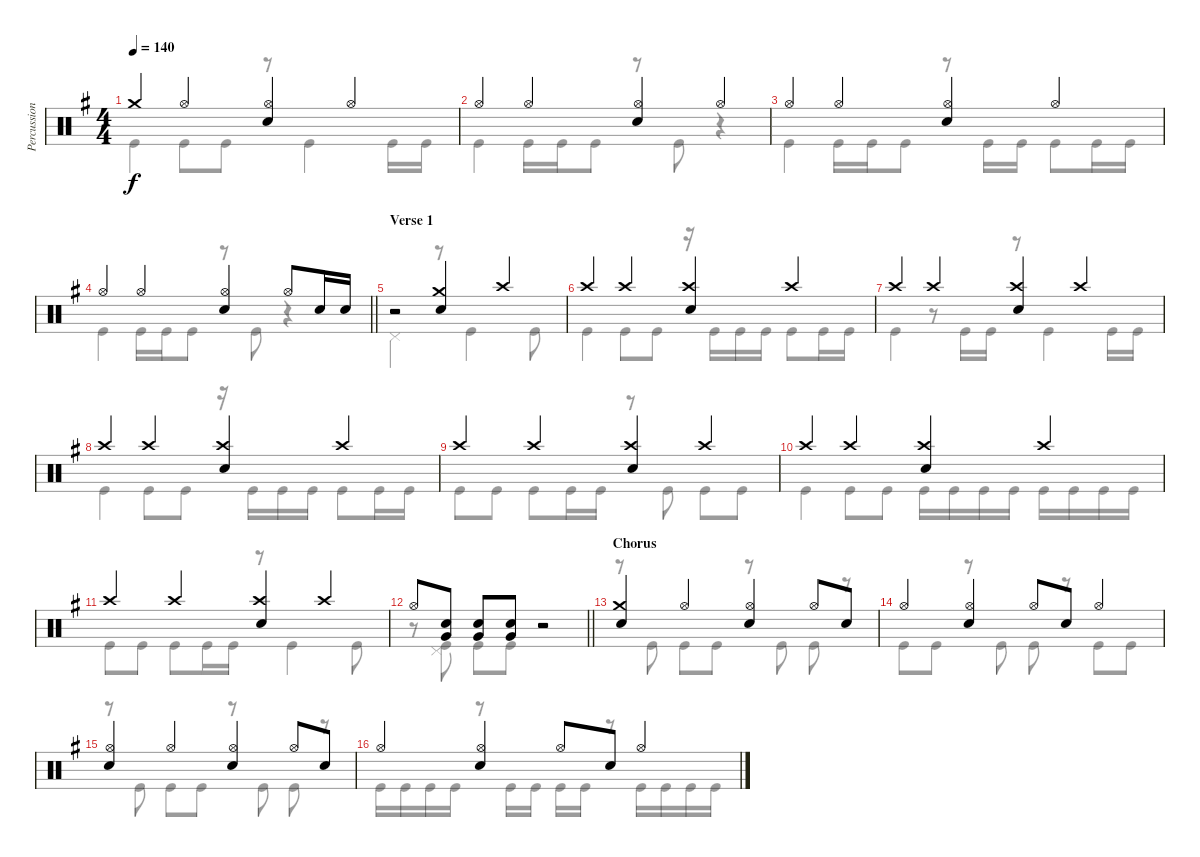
\track ("Percussion" "Percussion") {instrument percussion}
\staff {score}
\articulation defaults
\voice
\ts (4 4)
\tempo 140
\clef neutral
\ks eminor "Crash medium (hit)".4{dy f} "Hi-Hat (open)".4
("Hi-Hat (open)" "Electric Snare (hit)").4 "Hi-Hat (open)".4 |
"Hi-Hat (open)".4 "Hi-Hat (open)".4 ("Hi-Hat (open)" "Electric Snare (hit)").4 "Hi-Hat (open)".4 |
"Hi-Hat (open)".4 "Hi-Hat (open)".4 ("Hi-Hat (open)" "Electric Snare (hit)").4 "Hi-Hat (open)".4 |
\barLineRight lightlight "Hi-Hat (open)".4 "Hi-Hat (open)".4
("Hi-Hat (open)" "Electric Snare (hit)").4 "Hi-Hat (open)".8 "Electric Snare (hit)".16 "Electric Snare (hit)".16 |
\section ("" "Verse 1")
r.2 ("Crash medium (hit)" "Electric Snare (hit)").4 "Crash high (hit)".4 |
"Crash high (hit)".4 "Crash high (hit)".4 ("Crash high (hit)" "Electric Snare (hit)").4 "Crash high (hit)".4 |
"Crash high (hit)".4 "Crash high (hit)".4 ("Crash high (hit)" "Electric Snare (hit)").4 "Crash high (hit)".4 |
"Crash high (hit)".4 "Crash high (hit)".4 ("Crash high (hit)" "Electric Snare (hit)").4 "Crash high (hit)".4 |
"Crash high (hit)".4 "Crash high (hit)".4 ("Crash high (hit)" "Electric Snare (hit)").4 "Crash high (hit)".4 |
"Crash high (hit)".4 "Crash high (hit)".4 ("Crash high (hit)" "Electric Snare (hit)").4 "Crash high (hit)".4 |
"Crash high (hit)".4 "Crash high (hit)".4 ("Crash high (hit)" "Electric Snare (hit)").4 "Crash high (hit)".4 |
\barLineRight lightlight "Hi-Hat (open)".8
("Very Low Tom (hit)" "Electric Snare (hit)").8 ("Very Low Tom (hit)" "Electric Snare (hit)").8 ("Very Low Tom (hit)" "Electric Snare (hit)").8 r.2 |
\section ("" "Chorus")
("Crash medium (hit)" "Electric Snare (hit)").4 "Hi-Hat (open)".4 ("Hi-Hat (open)" "Electric Snare (hit)").4 "Hi-Hat (open)".8 "Electric Snare (hit)".8 |
"Hi-Hat (open)".4 ("Hi-Hat (open)" "Electric Snare (hit)").4 "Hi-Hat (open)".8 "Electric Snare (hit)".8 "Hi-Hat (open)".4 |
("Hi-Hat (open)" "Electric Snare (hit)").4 "Hi-Hat (open)".4 ("Hi-Hat (open)" "Electric Snare (hit)").4 "Hi-Hat (open)".8 "Electric Snare (hit)".8 |
"Hi-Hat (open)".4 ("Hi-Hat (open)" "Electric Snare (hit)").4 "Hi-Hat (open)".8 "Electric Snare (hit)".8 "Hi-Hat (open)".4
\voice
\clef neutral
\ottava regular
\simile none
\ks eminor "Kick (hit)".4{dy f} "Kick (hit)".8 "Kick (hit)".8
r.8 "Kick (hit)".4 "Kick (hit)".16 "Kick (hit)".16 |
"Kick (hit)".4 "Kick (hit)".16 "Kick (hit)".16 "Kick (hit)".8 r.8 "Kick (hit)".8 r.4 |
"Kick (hit)".4 "Kick (hit)".16 "Kick (hit)".16 "Kick (hit)".8 r.8 "Kick (hit)".16 "Kick (hit)".16 "Kick (hit)".8 "Kick (hit)".16 "Kick (hit)".16 |
\barLineRight lightlight "Kick (hit)".4 "Kick (hit)".16 "Kick (hit)".16 "Kick (hit)".8
r.8 "Kick (hit)".8 r.4 |
"Pedal Hi-Hat (hit)".2 r.8 "Kick (hit)".4 "Kick (hit)".8 |
"Kick (hit)".4 "Kick (hit)".8 "Kick (hit)".8 r.16 "Kick (hit)".16 "Kick (hit)".16 "Kick (hit)".16 "Kick (hit)".8 "Kick (hit)".16 "Kick (hit)".16 |
"Kick (hit)".4 r.8 "Kick (hit)".16 "Kick (hit)".16 r.8 "Kick (hit)".4 "Kick (hit)".16 "Kick (hit)".16 |
"Kick (hit)".4 "Kick (hit)".8 "Kick (hit)".8 r.16 "Kick (hit)".16 "Kick (hit)".16 "Kick (hit)".16 "Kick (hit)".8 "Kick (hit)".16 "Kick (hit)".16 |
"Kick (hit)".8 "Kick (hit)".8 "Kick (hit)".8 "Kick (hit)".16 "Kick (hit)".16 r.8 "Kick (hit)".8 "Kick (hit)".8 "Kick (hit)".8 |
"Kick (hit)".4 "Kick (hit)".8 "Kick (hit)".8 "Kick (hit)".16 "Kick (hit)".16 "Kick (hit)".16 "Kick (hit)".16 "Kick (hit)".16 "Kick (hit)".16 "Kick (hit)".16 "Kick (hit)".16 |
"Kick (hit)".8 "Kick (hit)".8 "Kick (hit)".8 "Kick (hit)".16 "Kick (hit)".16 r.8 "Kick (hit)".4 "Kick (hit)".8 |
\barLineRight lightlight
r.8 ("Pedal Hi-Hat (hit)" "Kick (hit)").8 "Kick (hit)".8 "Kick (hit)".8 r.2 |
r.8 "Kick (hit)".8 "Kick (hit)".8 "Kick (hit)".8 r.8 "Kick (hit)".8 "Kick (hit)".8 r.8 |
"Kick (hit)".8 "Kick (hit)".8 r.8 "Kick (hit)".8 "Kick (hit)".8 r.8 "Kick (hit)".8 "Kick (hit)".8 |
r.8 "Kick (hit)".8 "Kick (hit)".8 "Kick (hit)".8 r.8 "Kick (hit)".8 "Kick (hit)".8 r.8 |
"Kick (hit)".16 "Kick (hit)".16 "Kick (hit)".16 "Kick (hit)".16 r.8 "Kick (hit)".16 "Kick (hit)".16 "Kick (hit)".16 "Kick (hit)".16 r.8 "Kick (hit)".16 "Kick (hit)".16 "Kick (hit)".16 "Kick (hit)".16
